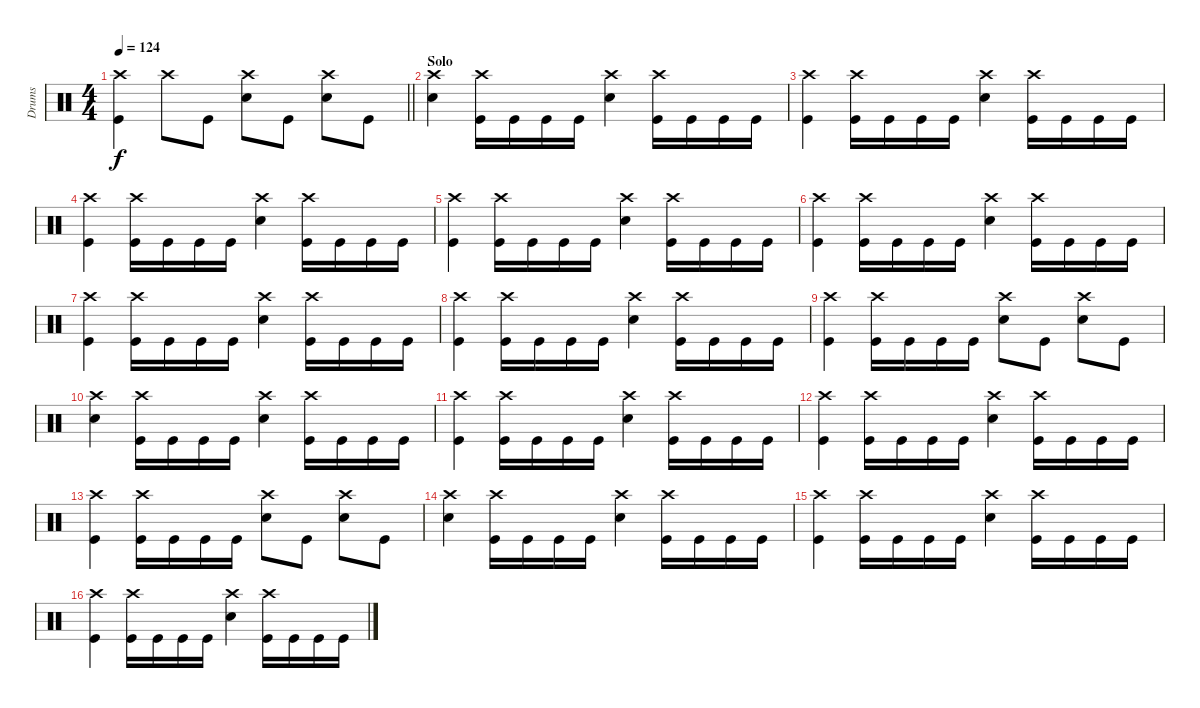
\track ("Drums" "Drums") {instrument percussion}
\staff {score}
\articulation defaults
\ts (4 4)
\tempo 124
\clef neutral
\barLineRight lightlight
\ks c
("Kick (hit)" "Crash high (hit)").4{dy f} "Crash high (hit)".8 "Kick (hit)".8 ("Snare (hit) 2" "Crash high (hit)").8 "Kick (hit)".8 ("Snare (hit) 2" "Crash high (hit)").8 "Kick (hit)".8 |
\section ("" "Solo")
("Snare (hit) 2" "Crash high (hit)").4 ("Kick (hit)" "Crash high (hit)").16 "Kick (hit)".16 "Kick (hit)".16 "Kick (hit)".16 ("Snare (hit) 2" "Crash high (hit)").4 ("Kick (hit)" "Crash high (hit)").16 "Kick (hit)".16 "Kick (hit)".16 "Kick (hit)".16 |
("Kick (hit)" "Crash high (hit)").4 ("Kick (hit)" "Crash high (hit)").16 "Kick (hit)".16 "Kick (hit)".16 "Kick (hit)".16 ("Snare (hit) 2" "Crash high (hit)").4 ("Kick (hit)" "Crash high (hit)").16 "Kick (hit)".16 "Kick (hit)".16 "Kick (hit)".16 |
("Kick (hit)" "Crash high (hit)").4 ("Kick (hit)" "Crash high (hit)").16 "Kick (hit)".16 "Kick (hit)".16 "Kick (hit)".16 ("Snare (hit) 2" "Crash high (hit)").4 ("Kick (hit)" "Crash high (hit)").16 "Kick (hit)".16 "Kick (hit)".16 "Kick (hit)".16 |
("Kick (hit)" "Crash high (hit)").4 ("Kick (hit)" "Crash high (hit)").16 "Kick (hit)".16 "Kick (hit)".16 "Kick (hit)".16 ("Snare (hit) 2" "Crash high (hit)").4 ("Kick (hit)" "Crash high (hit)").16 "Kick (hit)".16 "Kick (hit)".16 "Kick (hit)".16 |
("Kick (hit)" "Crash high (hit)").4 ("Kick (hit)" "Crash high (hit)").16 "Kick (hit)".16 "Kick (hit)".16 "Kick (hit)".16 ("Snare (hit) 2" "Crash high (hit)").4 ("Kick (hit)" "Crash high (hit)").16 "Kick (hit)".16 "Kick (hit)".16 "Kick (hit)".16 |
("Kick (hit)" "Crash high (hit)").4 ("Kick (hit)" "Crash high (hit)").16 "Kick (hit)".16 "Kick (hit)".16 "Kick (hit)".16 ("Snare (hit) 2" "Crash high (hit)").4 ("Kick (hit)" "Crash high (hit)").16 "Kick (hit)".16 "Kick (hit)".16 "Kick (hit)".16 |
("Kick (hit)" "Crash high (hit)").4 ("Kick (hit)" "Crash high (hit)").16 "Kick (hit)".16 "Kick (hit)".16 "Kick (hit)".16 ("Snare (hit) 2" "Crash high (hit)").4 ("Kick (hit)" "Crash high (hit)").16 "Kick (hit)".16 "Kick (hit)".16 "Kick (hit)".16 |
("Kick (hit)" "Crash high (hit)").4 ("Kick (hit)" "Crash high (hit)").16 "Kick (hit)".16 "Kick (hit)".16 "Kick (hit)".16 ("Snare (hit) 2" "Crash high (hit)").8 "Kick (hit)".8 ("Snare (hit) 2" "Crash high (hit)").8 "Kick (hit)".8 |
("Snare (hit) 2" "Crash high (hit)").4 ("Kick (hit)" "Crash high (hit)").16 "Kick (hit)".16 "Kick (hit)".16 "Kick (hit)".16 ("Snare (hit) 2" "Crash high (hit)").4 ("Kick (hit)" "Crash high (hit)").16 "Kick (hit)".16 "Kick (hit)".16 "Kick (hit)".16 |
("Kick (hit)" "Crash high (hit)").4 ("Kick (hit)" "Crash high (hit)").16 "Kick (hit)".16 "Kick (hit)".16 "Kick (hit)".16 ("Snare (hit) 2" "Crash high (hit)").4 ("Kick (hit)" "Crash high (hit)").16 "Kick (hit)".16 "Kick (hit)".16 "Kick (hit)".16 |
("Kick (hit)" "Crash high (hit)").4 ("Kick (hit)" "Crash high (hit)").16 "Kick (hit)".16 "Kick (hit)".16 "Kick (hit)".16 ("Snare (hit) 2" "Crash high (hit)").4 ("Kick (hit)" "Crash high (hit)").16 "Kick (hit)".16 "Kick (hit)".16 "Kick (hit)".16 |
("Kick (hit)" "Crash high (hit)").4 ("Kick (hit)" "Crash high (hit)").16 "Kick (hit)".16 "Kick (hit)".16 "Kick (hit)".16 ("Snare (hit) 2" "Crash high (hit)").8 "Kick (hit)".8 ("Snare (hit) 2" "Crash high (hit)").8 "Kick (hit)".8 |
("Snare (hit) 2" "Crash high (hit)").4 ("Kick (hit)" "Crash high (hit)").16 "Kick (hit)".16 "Kick (hit)".16 "Kick (hit)".16 ("Snare (hit) 2" "Crash high (hit)").4 ("Kick (hit)" "Crash high (hit)").16 "Kick (hit)".16 "Kick (hit)".16 "Kick (hit)".16 |
("Kick (hit)" "Crash high (hit)").4 ("Kick (hit)" "Crash high (hit)").16 "Kick (hit)".16 "Kick (hit)".16 "Kick (hit)".16 ("Snare (hit) 2" "Crash high (hit)").4 ("Kick (hit)" "Crash high (hit)").16 "Kick (hit)".16 "Kick (hit)".16 "Kick (hit)".16 |
("Kick (hit)" "Crash high (hit)").4 ("Kick (hit)" "Crash high (hit)").16 "Kick (hit)".16 "Kick (hit)".16 "Kick (hit)".16 ("Snare (hit) 2" "Crash high (hit)").4 ("Kick (hit)" "Crash high (hit)").16 "Kick (hit)".16 "Kick (hit)".16 "Kick (hit)".16
